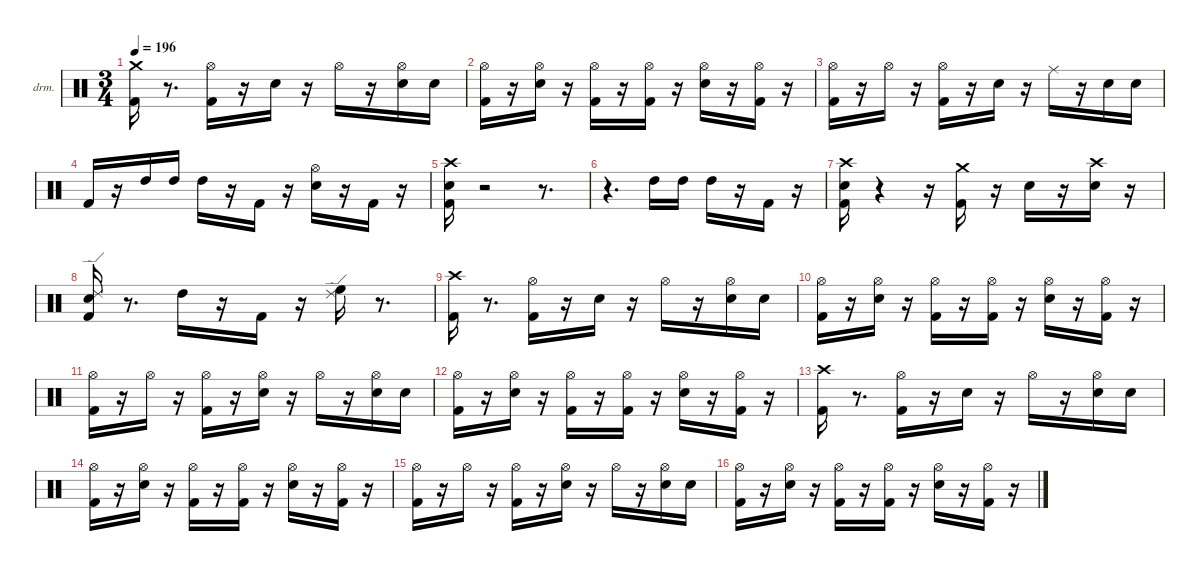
\hideDynamics
\bracketExtendMode nobrackets
\firstSystemTrackNameOrientation horizontal
\otherSystemsTrackNameOrientation horizontal
\track ("EZdrummer 3" "drm.") {instrument percussion}
\staff {score}
\articulation defaults
\ts (3 4)
\tempo 196
\clef neutral
\ks aminor
("Kick (hit) 2" "Crash medium (hit)").16{dy fff beam Down} r.8{d beam Down} ("Kick (hit) 2" "Hi-Hat (open)"{acc #}).16{dy f beam Down} r.16{beam Down} "Snare (hit) 2".16{dy ff beam Down} r.16{beam Down} "Hi-Hat (open)"{acc #}.16{dy f beam Down} r.16{beam Down} ("Snare (hit) 2" "Hi-Hat (open)"{acc #}).16{beam Down} "Snare (hit) 2".16{dy mp beam Down} |
("Kick (hit) 2" "Hi-Hat (open)"{acc #}).16{dy fff beam Down} r.16{beam Down} ("Snare (hit) 2" "Hi-Hat (open)"{acc #}).16{dy ff beam Down} r.16{beam Down} ("Kick (hit) 2" "Hi-Hat (open)"{acc #}).16{dy mf beam Down} r.16{beam Down} ("Kick (hit) 2" "Hi-Hat (open)"{acc #}).16{dy fff beam Down} r.16{beam Down} ("Snare (hit) 2" "Hi-Hat (open)"{acc #}).16{dy ff beam Down} r.16{beam Down} ("Kick (hit) 2" "Hi-Hat (open)"{acc #}).16{dy mp beam Down} r.16{beam Down} |
("Kick (hit) 2" "Hi-Hat (open)"{acc #}).16{dy fff beam Down} r.16{beam Down} "Hi-Hat (open)"{acc #}.16{dy pp beam Down} r.16{beam Down} ("Kick (hit) 2" "Hi-Hat (open)"{acc #}).16{dy f beam Down} r.16{beam Down} "Snare (hit) 2".16{dy ff beam Down} r.16{beam Down} "Ride (middle)"{acc #}.16{beam Down} r.16{beam Down} "Snare (hit) 2".16{dy f beam Down} "Snare (hit) 2".16{dy mp beam Down} |
"Kick (hit) 2".16{dy fff beam Up} r.16{beam Up} "High Tom (hit)".16{dy ff beam Down} "High Tom (hit)".16{dy mf beam Down} "High Tom (hit)".16{dy fff beam Down} r.16{beam Down} "Kick (hit) 2".16{dy f beam Up} r.16{beam Up} ("Snare (hit) 2" "Hi-Hat (open)"{acc #}).16{dy ff beam Down} r.16{beam Down} "Kick (hit) 2".16{dy mf beam Up} r.16{beam Up} |
("Kick (hit) 2" "Snare (hit) 2" "Crash high (hit)"{acc #}).16{dy fff beam Down} r.2{beam Down} r.8{d beam Down} |
r.4{d beam Down} "High Tom (hit)".16{dy f beam Down} "High Tom (hit)".16{dy mf beam Down} "High Tom (hit)".16{dy fff beam Down} r.16{beam Down} "Kick (hit) 2".16{dy mp beam Up} r.16{beam Up} |
("Kick (hit) 2" "Snare (hit) 2" "Crash high (hit)"{acc #}).16{dy fff beam Down} r.4{beam Down} r.16{beam Down} ("Kick (hit) 2" "Crash medium (hit)").16{dy ff beam Down} r.16{beam Down} "Snare (hit) 2".16{beam Down} r.16{beam Down} ("Snare (hit) 2" "Crash high (hit)"{acc #}).16{dy pp beam Down} r.16{beam Down} |
("Kick (hit) 2" "Snare (hit) 2" "Ride (edge) 2").16{dy ff beam Up} r.8{d beam Up} "High Tom (hit)".16{beam Down} r.16{beam Down} "Kick (hit) 2".16{beam Up} r.16{beam Up} ("High Floor Tom (hit)" "Ride (edge) 2").16{beam Down} r.8{d beam Down} |
("Kick (hit) 2" "Crash high (hit)"{acc #}).16{dy fff beam Down} r.8{d beam Down} ("Kick (hit) 2" "Hi-Hat (open)"{acc #}).16{dy f beam Down} r.16{beam Down} "Snare (hit) 2".16{dy ff beam Down} r.16{beam Down} "Hi-Hat (open)"{acc #}.16{dy f beam Down} r.16{beam Down} ("Snare (hit) 2" "Hi-Hat (open)"{acc #}).16{beam Down} "Snare (hit) 2".16{dy mp beam Down} |
("Kick (hit) 2" "Hi-Hat (open)"{acc #}).16{dy fff beam Down} r.16{beam Down} ("Snare (hit) 2" "Hi-Hat (open)"{acc #}).16{dy ff beam Down} r.16{beam Down} ("Kick (hit) 2" "Hi-Hat (open)"{acc #}).16{dy mf beam Down} r.16{beam Down} ("Kick (hit) 2" "Hi-Hat (open)"{acc #}).16{dy fff beam Down} r.16{beam Down} ("Snare (hit) 2" "Hi-Hat (open)"{acc #}).16{dy ff beam Down} r.16{beam Down} ("Kick (hit) 2" "Hi-Hat (open)"{acc #}).16{dy mp beam Down} r.16{beam Down} |
("Kick (hit) 2" "Hi-Hat (open)"{acc #}).16{dy fff beam Down} r.16{beam Down} "Hi-Hat (open)"{acc #}.16{dy pp beam Down} r.16{beam Down} ("Kick (hit) 2" "Hi-Hat (open)"{acc #}).16{dy f beam Down} r.16{beam Down} ("Snare (hit) 2" "Hi-Hat (open)"{acc #}).16{dy ff beam Down} r.16{beam Down} "Hi-Hat (open)"{acc #}.16{dy f beam Down} r.16{beam Down} ("Snare (hit) 2" "Hi-Hat (open)"{acc #}).16{beam Down} "Snare (hit) 2".16{dy mp beam Down} |
("Kick (hit) 2" "Hi-Hat (open)"{acc #}).16{dy fff beam Down} r.16{beam Down} ("Snare (hit) 2" "Hi-Hat (open)"{acc #}).16{dy ff beam Down} r.16{beam Down} ("Kick (hit) 2" "Hi-Hat (open)"{acc #}).16{dy mf beam Down} r.16{beam Down} ("Kick (hit) 2" "Hi-Hat (open)"{acc #}).16{dy fff beam Down} r.16{beam Down} ("Snare (hit) 2" "Hi-Hat (open)"{acc #}).16{dy ff beam Down} r.16{beam Down} ("Kick (hit) 2" "Hi-Hat (open)"{acc #}).16{dy mp beam Down} r.16{beam Down} |
("Kick (hit) 2" "Crash high (hit)"{acc #}).16{dy fff beam Down} r.8{d beam Down} ("Kick (hit) 2" "Hi-Hat (open)"{acc #}).16{dy f beam Down} r.16{beam Down} "Snare (hit) 2".16{dy ff beam Down} r.16{beam Down} "Hi-Hat (open)"{acc #}.16{dy f beam Down} r.16{beam Down} ("Snare (hit) 2" "Hi-Hat (open)"{acc #}).16{beam Down} "Snare (hit) 2".16{dy mp beam Down} |
("Kick (hit) 2" "Hi-Hat (open)"{acc #}).16{dy fff beam Down} r.16{beam Down} ("Snare (hit) 2" "Hi-Hat (open)"{acc #}).16{dy ff beam Down} r.16{beam Down} ("Kick (hit) 2" "Hi-Hat (open)"{acc #}).16{dy mf beam Down} r.16{beam Down} ("Kick (hit) 2" "Hi-Hat (open)"{acc #}).16{dy fff beam Down} r.16{beam Down} ("Snare (hit) 2" "Hi-Hat (open)"{acc #}).16{dy ff beam Down} r.16{beam Down} ("Kick (hit) 2" "Hi-Hat (open)"{acc #}).16{dy mp beam Down} r.16{beam Down} |
("Kick (hit) 2" "Hi-Hat (open)"{acc #}).16{dy fff beam Down} r.16{beam Down} "Hi-Hat (open)"{acc #}.16{dy pp beam Down} r.16{beam Down} ("Kick (hit) 2" "Hi-Hat (open)"{acc #}).16{dy f beam Down} r.16{beam Down} ("Snare (hit) 2" "Hi-Hat (open)"{acc #}).16{dy ff beam Down} r.16{beam Down} "Hi-Hat (open)"{acc #}.16{dy f beam Down} r.16{beam Down} ("Snare (hit) 2" "Hi-Hat (open)"{acc #}).16{beam Down} "Snare (hit) 2".16{dy mp beam Down} |
("Kick (hit) 2" "Hi-Hat (open)"{acc #}).16{dy fff beam Down} r.16{beam Down} ("Snare (hit) 2" "Hi-Hat (open)"{acc #}).16{dy ff beam Down} r.16{beam Down} ("Kick (hit) 2" "Hi-Hat (open)"{acc #}).16{dy mf beam Down} r.16{beam Down} ("Kick (hit) 2" "Hi-Hat (open)"{acc #}).16{dy fff beam Down} r.16{beam Down} ("Snare (hit) 2" "Hi-Hat (open)"{acc #}).16{dy ff beam Down} r.16{beam Down} ("Kick (hit) 2" "Hi-Hat (open)"{acc #}).16{dy mp beam Down} r.16{beam Down}
